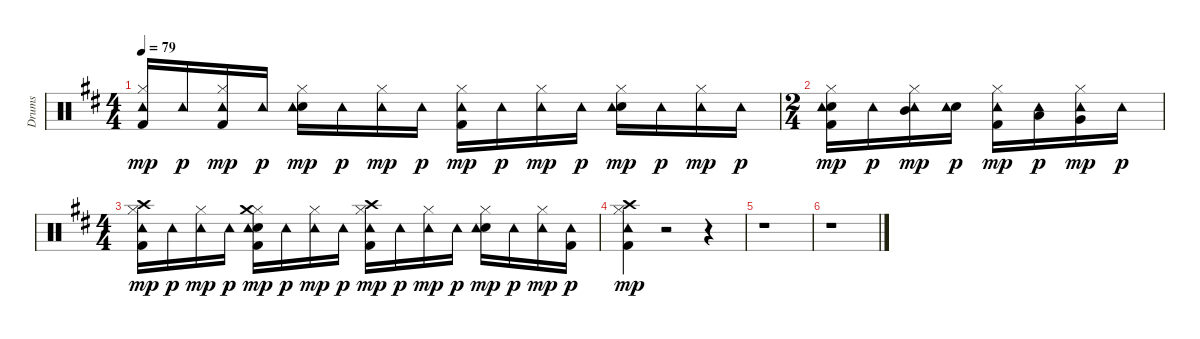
\track ("Drums" "Drums") {instrument percussion}
\staff {score}
\articulation defaults
\ts (4 4)
\tempo 79
\clef neutral
\ks d
("Kick (hit) 2" "Hi-Hat (closed)" "Tambourine (hit)").16{dy mp} "Tambourine (hit)".16{dy p} ("Kick (hit) 2" "Hi-Hat (closed)" "Tambourine (hit)").16{dy mp} "Tambourine (hit)".16{dy p} ("Electric Snare (hit)" "Hi-Hat (closed)" "Tambourine (hit)").16{dy mp} "Tambourine (hit)".16{dy p} ("Hi-Hat (closed)" "Tambourine (hit)").16{dy mp} "Tambourine (hit)".16{dy p} ("Kick (hit) 2" "Hi-Hat (closed)" "Tambourine (hit)").16{dy mp} "Tambourine (hit)".16{dy p} ("Hi-Hat (closed)" "Tambourine (hit)").16{dy mp} "Tambourine (hit)".16{dy p} ("Electric Snare (hit)" "Hi-Hat (closed)" "Tambourine (hit)").16{dy mp} "Tambourine (hit)".16{dy p} ("Hi-Hat (closed)" "Tambourine (hit)").16{dy mp} "Tambourine (hit)".16{dy p} |
\ts (2 4)
("Kick (hit) 2" "Electric Snare (hit)" "Hi-Hat (closed)" "Tambourine (hit)").16{dy mp} "Tambourine (hit)".16{dy p} ("Hi-Hat (closed)" "Mid Tom (hit)" "Tambourine (hit)").16{dy mp} ("Electric Snare (hit)" "Tambourine (hit)").16{dy p} ("Kick (hit) 2" "Hi-Hat (closed)" "Tambourine (hit)").16{dy mp} ("Low Tom (hit)" "Tambourine (hit)").16{dy p} ("Hi-Hat (closed)" "Very Low Tom (hit)" "Tambourine (hit)").16{dy mp} "Tambourine (hit)".16{dy p} |
\ts (4 4)
("Kick (hit) 2" "Hi-Hat (closed)" "Crash high (hit)" "Tambourine (hit)").16{dy mp} "Tambourine (hit)".16{dy p} ("Hi-Hat (closed)" "Tambourine (hit)").16{dy mp} "Tambourine (hit)".16{dy p} ("Kick (hit) 2" "Electric Snare (hit)" "Hi-Hat (closed)" "Tambourine (hit)" "Crash medium (hit)").16{dy mp} "Tambourine (hit)".16{dy p} ("Hi-Hat (closed)" "Tambourine (hit)").16{dy mp} "Tambourine (hit)".16{dy p} ("Kick (hit) 2" "Hi-Hat (closed)" "Crash high (hit)" "Tambourine (hit)").16{dy mp} "Tambourine (hit)".16{dy p} ("Hi-Hat (closed)" "Tambourine (hit)").16{dy mp} "Tambourine (hit)".16{dy p} ("Electric Snare (hit)" "Hi-Hat (closed)" "Tambourine (hit)").16{dy mp} "Tambourine (hit)".16{dy p} ("Hi-Hat (closed)" "Tambourine (hit)").16{dy mp} ("Kick (hit) 2" "Tambourine (hit)").16{dy p} |
("Kick (hit) 2" "Hi-Hat (closed)" "Crash high (hit)" "Tambourine (hit)").4{dy mp} r.2 r.4 |
r.1 |
r.1
